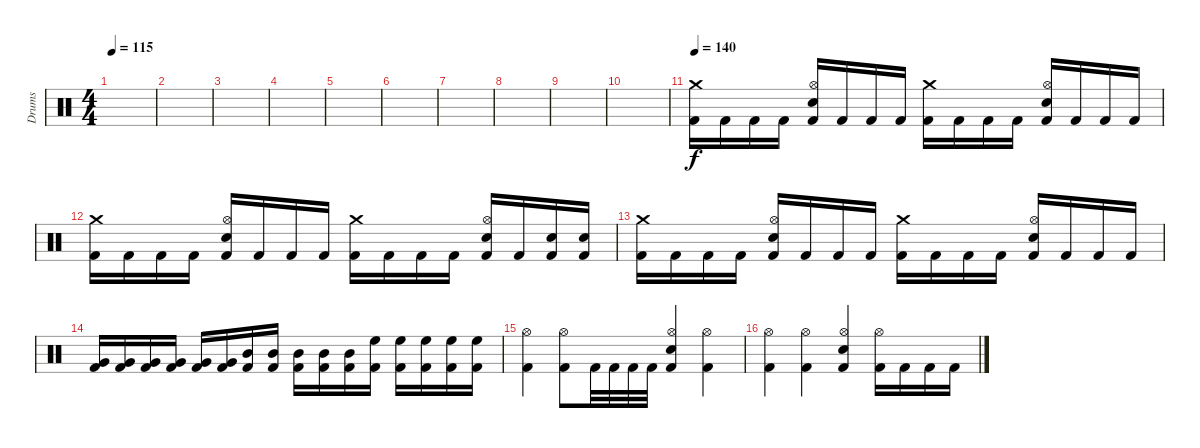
\track ("Drums" "Drums") {instrument percussion}
\staff {score}
\articulation defaults
\ts (4 4)
\tempo 115
\clef neutral
\ks c
|
|
|
|
|
|
|
|
|
|
\tempo 140
("Crash medium (hit)" "Kick (hit) 2").16 "Kick (hit) 2".16 "Kick (hit) 2".16 "Kick (hit) 2".16 ("Hi-Hat (open)" "Snare (hit) 2" "Kick (hit) 2").16 "Kick (hit) 2".16 "Kick (hit) 2".16 "Kick (hit) 2".16 ("Crash medium (hit)" "Kick (hit) 2").16 "Kick (hit) 2".16 "Kick (hit) 2".16 "Kick (hit) 2".16 ("Hi-Hat (open)" "Snare (hit) 2" "Kick (hit) 2").16 "Kick (hit) 2".16 "Kick (hit) 2".16 "Kick (hit) 2".16 |
("Crash medium (hit)" "Kick (hit) 2").16 "Kick (hit) 2".16 "Kick (hit) 2".16 "Kick (hit) 2".16 ("Hi-Hat (open)" "Snare (hit) 2" "Kick (hit) 2").16 "Kick (hit) 2".16 "Kick (hit) 2".16 "Kick (hit) 2".16 ("Crash medium (hit)" "Kick (hit) 2").16 "Kick (hit) 2".16 "Kick (hit) 2".16 "Kick (hit) 2".16 ("Hi-Hat (open)" "Snare (hit) 2" "Kick (hit) 2").16 "Kick (hit) 2".16 ("Snare (hit) 2" "Kick (hit) 2").16 ("Snare (hit) 2" "Kick (hit) 2").16 |
("Crash medium (hit)" "Kick (hit) 2").16 "Kick (hit) 2".16 "Kick (hit) 2".16 "Kick (hit) 2".16 ("Hi-Hat (open)" "Snare (hit) 2" "Kick (hit) 2").16 "Kick (hit) 2".16 "Kick (hit) 2".16 "Kick (hit) 2".16 ("Crash medium (hit)" "Kick (hit) 2").16 "Kick (hit) 2".16 "Kick (hit) 2".16 "Kick (hit) 2".16 ("Hi-Hat (open)" "Snare (hit) 2" "Kick (hit) 2").16 "Kick (hit) 2".16 "Kick (hit) 2".16 "Kick (hit) 2".16 |
("Very Low Tom (hit)" "Kick (hit) 2").16 ("Very Low Tom (hit)" "Kick (hit) 2").16 ("Very Low Tom (hit)" "Kick (hit) 2").16 ("Very Low Tom (hit)" "Kick (hit) 2").16 ("Very Low Tom (hit)" "Kick (hit) 2").16 ("Very Low Tom (hit)" "Kick (hit) 2").16 ("Mid Tom (hit)" "Kick (hit) 2").16 ("Mid Tom (hit)" "Kick (hit) 2").16 ("Mid Tom (hit)" "Kick (hit) 2").16 ("Mid Tom (hit)" "Kick (hit) 2").16 ("Mid Tom (hit)" "Kick (hit) 2").16 ("High Floor Tom (hit)" "Kick (hit) 2").16 ("High Floor Tom (hit)" "Kick (hit) 2").16 ("High Floor Tom (hit)" "Kick (hit) 2").16 ("High Floor Tom (hit)" "Kick (hit) 2").16 ("High Floor Tom (hit)" "Kick (hit) 2").16 |
("Hi-Hat (open)" "Kick (hit) 2").4 ("Hi-Hat (open)" "Kick (hit) 2").8 "Kick (hit) 2".32 "Kick (hit) 2".32 "Kick (hit) 2".32 "Kick (hit) 2".32 ("Hi-Hat (open)" "Snare (hit) 2" "Kick (hit) 2").4 ("Hi-Hat (open)" "Kick (hit) 2").4 |
("Hi-Hat (open)" "Kick (hit) 2").4 ("Hi-Hat (open)" "Kick (hit) 2").4 ("Hi-Hat (open)" "Snare (hit) 2" "Kick (hit) 2").4 ("Hi-Hat (open)" "Kick (hit) 2").16 "Kick (hit) 2".16 "Kick (hit) 2".16 "Kick (hit) 2".16
